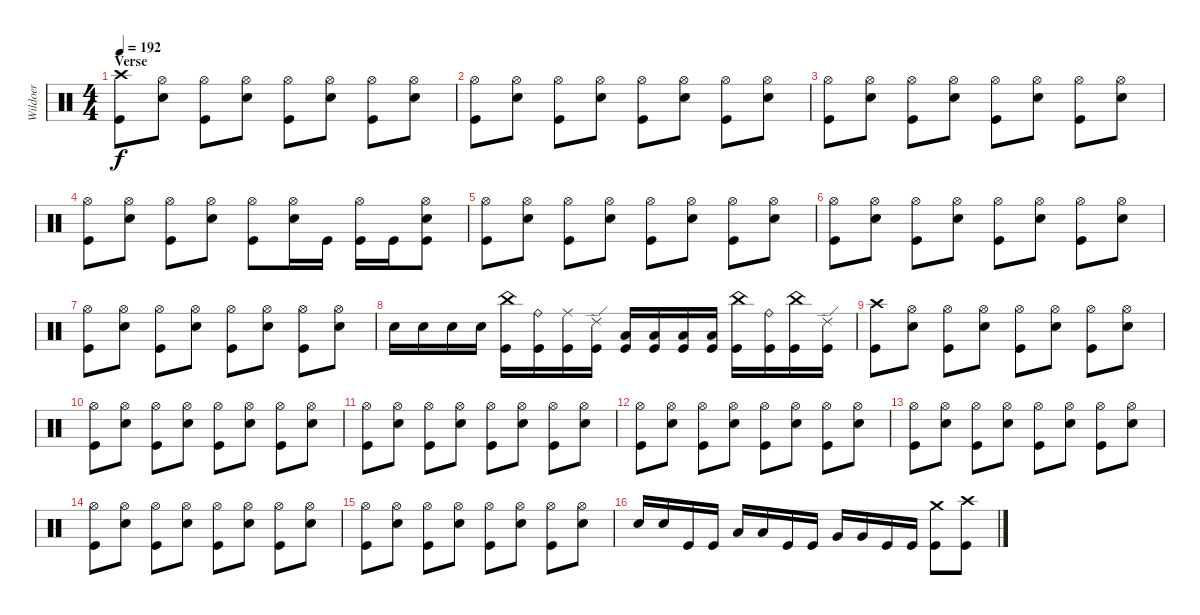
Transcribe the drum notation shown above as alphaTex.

\track ("Wildoer" "Wildoer") {instrument percussion}
\staff {score}
\articulation defaults
\ts (4 4)
\section ("" "Verse")
\tempo 192
\clef neutral
\ks c
("Crash high (hit)" "Kick (hit)").8{dy f} ("Hi-Hat (open)" "Electric Snare (hit)").8 ("Hi-Hat (open)" "Kick (hit)").8 ("Hi-Hat (open)" "Electric Snare (hit)").8 ("Hi-Hat (open)" "Kick (hit)").8 ("Hi-Hat (open)" "Electric Snare (hit)").8 ("Hi-Hat (open)" "Kick (hit)").8 ("Hi-Hat (open)" "Electric Snare (hit)").8 |
("Hi-Hat (open)" "Kick (hit)").8 ("Hi-Hat (open)" "Electric Snare (hit)").8 ("Hi-Hat (open)" "Kick (hit)").8 ("Hi-Hat (open)" "Electric Snare (hit)").8 ("Hi-Hat (open)" "Kick (hit)").8 ("Hi-Hat (open)" "Electric Snare (hit)").8 ("Hi-Hat (open)" "Kick (hit)").8 ("Hi-Hat (open)" "Electric Snare (hit)").8 |
("Hi-Hat (open)" "Kick (hit)").8 ("Hi-Hat (open)" "Electric Snare (hit)").8 ("Hi-Hat (open)" "Kick (hit)").8 ("Hi-Hat (open)" "Electric Snare (hit)").8 ("Hi-Hat (open)" "Kick (hit)").8 ("Hi-Hat (open)" "Electric Snare (hit)").8 ("Hi-Hat (open)" "Kick (hit)").8 ("Hi-Hat (open)" "Electric Snare (hit)").8 |
("Hi-Hat (open)" "Kick (hit)").8 ("Hi-Hat (open)" "Electric Snare (hit)").8 ("Hi-Hat (open)" "Kick (hit)").8 ("Hi-Hat (open)" "Electric Snare (hit)").8 ("Hi-Hat (open)" "Kick (hit)").8 ("Hi-Hat (open)" "Electric Snare (hit)").16 "Kick (hit)".16 ("Hi-Hat (open)" "Kick (hit)").16 "Kick (hit)".16 ("Hi-Hat (open)" "Electric Snare (hit)" "Kick (hit)").8 |
("Hi-Hat (open)" "Kick (hit)").8 ("Hi-Hat (open)" "Electric Snare (hit)").8 ("Hi-Hat (open)" "Kick (hit)").8 ("Hi-Hat (open)" "Electric Snare (hit)").8 ("Hi-Hat (open)" "Kick (hit)").8 ("Hi-Hat (open)" "Electric Snare (hit)").8 ("Hi-Hat (open)" "Kick (hit)").8 ("Hi-Hat (open)" "Electric Snare (hit)").8 |
("Hi-Hat (open)" "Kick (hit)").8 ("Hi-Hat (open)" "Electric Snare (hit)").8 ("Hi-Hat (open)" "Kick (hit)").8 ("Hi-Hat (open)" "Electric Snare (hit)").8 ("Hi-Hat (open)" "Kick (hit)").8 ("Hi-Hat (open)" "Electric Snare (hit)").8 ("Hi-Hat (open)" "Kick (hit)").8 ("Hi-Hat (open)" "Electric Snare (hit)").8 |
("Hi-Hat (open)" "Kick (hit)").8 ("Hi-Hat (open)" "Electric Snare (hit)").8 ("Hi-Hat (open)" "Kick (hit)").8 ("Hi-Hat (open)" "Electric Snare (hit)").8 ("Hi-Hat (open)" "Kick (hit)").8 ("Hi-Hat (open)" "Electric Snare (hit)").8 ("Hi-Hat (open)" "Kick (hit)").8 ("Hi-Hat (open)" "Electric Snare (hit)").8 |
"Electric Snare (hit)".16 "Electric Snare (hit)".16 "Electric Snare (hit)".16 "Electric Snare (hit)".16 ("China (hit)" "Kick (hit)").16 ("Ride (bell)" "Kick (hit)").16 ("Ride (middle)" "Kick (hit)").16 ("Ride (edge) 2" "Kick (hit)").16 ("Low Tom (hit)" "Kick (hit)").16 ("Low Tom (hit)" "Kick (hit)").16 ("Low Floor Tom (hit)" "Kick (hit)").16 ("Low Floor Tom (hit)" "Kick (hit)").16 ("China (hit)" "Kick (hit)").16 ("Ride (bell)" "Kick (hit)").16 ("China (hit)" "Kick (hit)").16 ("Ride (edge) 2" "Kick (hit)").16 |
("Crash high (hit)" "Kick (hit)").8 ("Hi-Hat (open)" "Electric Snare (hit)").8 ("Hi-Hat (open)" "Kick (hit)").8 ("Hi-Hat (open)" "Electric Snare (hit)").8 ("Hi-Hat (open)" "Kick (hit)").8 ("Hi-Hat (open)" "Electric Snare (hit)").8 ("Hi-Hat (open)" "Kick (hit)").8 ("Hi-Hat (open)" "Electric Snare (hit)").8 |
("Hi-Hat (open)" "Kick (hit)").8 ("Hi-Hat (open)" "Electric Snare (hit)").8 ("Hi-Hat (open)" "Kick (hit)").8 ("Hi-Hat (open)" "Electric Snare (hit)").8 ("Hi-Hat (open)" "Kick (hit)").8 ("Hi-Hat (open)" "Electric Snare (hit)").8 ("Hi-Hat (open)" "Kick (hit)").8 ("Hi-Hat (open)" "Electric Snare (hit)").8 |
("Hi-Hat (open)" "Kick (hit)").8 ("Hi-Hat (open)" "Electric Snare (hit)").8 ("Hi-Hat (open)" "Kick (hit)").8 ("Hi-Hat (open)" "Electric Snare (hit)").8 ("Hi-Hat (open)" "Kick (hit)").8 ("Hi-Hat (open)" "Electric Snare (hit)").8 ("Hi-Hat (open)" "Kick (hit)").8 ("Hi-Hat (open)" "Electric Snare (hit)").8 |
("Hi-Hat (open)" "Kick (hit)").8 ("Hi-Hat (open)" "Electric Snare (hit)").8 ("Hi-Hat (open)" "Kick (hit)").8 ("Hi-Hat (open)" "Electric Snare (hit)").8 ("Hi-Hat (open)" "Kick (hit)").8 ("Hi-Hat (open)" "Electric Snare (hit)").8 ("Hi-Hat (open)" "Kick (hit)").8 ("Hi-Hat (open)" "Electric Snare (hit)").8 |
("Hi-Hat (open)" "Kick (hit)").8 ("Hi-Hat (open)" "Electric Snare (hit)").8 ("Hi-Hat (open)" "Kick (hit)").8 ("Hi-Hat (open)" "Electric Snare (hit)").8 ("Hi-Hat (open)" "Kick (hit)").8 ("Hi-Hat (open)" "Electric Snare (hit)").8 ("Hi-Hat (open)" "Kick (hit)").8 ("Hi-Hat (open)" "Electric Snare (hit)").8 |
("Hi-Hat (open)" "Kick (hit)").8 ("Hi-Hat (open)" "Electric Snare (hit)").8 ("Hi-Hat (open)" "Kick (hit)").8 ("Hi-Hat (open)" "Electric Snare (hit)").8 ("Hi-Hat (open)" "Kick (hit)").8 ("Hi-Hat (open)" "Electric Snare (hit)").8 ("Hi-Hat (open)" "Kick (hit)").8 ("Hi-Hat (open)" "Electric Snare (hit)").8 |
("Hi-Hat (open)" "Kick (hit)").8 ("Hi-Hat (open)" "Electric Snare (hit)").8 ("Hi-Hat (open)" "Kick (hit)").8 ("Hi-Hat (open)" "Electric Snare (hit)").8 ("Hi-Hat (open)" "Kick (hit)").8 ("Hi-Hat (open)" "Electric Snare (hit)").8 ("Hi-Hat (open)" "Kick (hit)").8 ("Hi-Hat (open)" "Electric Snare (hit)").8 |
"Electric Snare (hit)".16 "Electric Snare (hit)".16 "Kick (hit)".16 "Kick (hit)".16 "Low Tom (hit)".16 "Low Tom (hit)".16 "Kick (hit)".16 "Kick (hit)".16 "Very Low Tom (hit)".16 "Very Low Tom (hit)".16 "Kick (hit)".16 "Kick (hit)".16 ("Crash medium (hit)" "Kick (hit)").8 ("Crash high (hit)" "Kick (hit)").8
